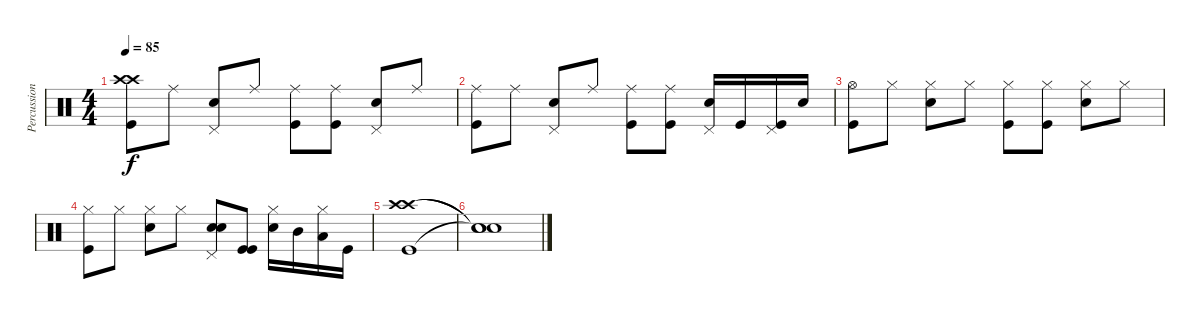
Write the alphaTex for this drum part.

\track ("Percussioni" "Percussion") {instrument percussion}
\staff {score}
\articulation defaults
\ts (4 4)
\tempo 85
\clef neutral
\ks c
("Crash high (hit)" "Crash high (hit)" "Kick (hit)").8{dy f} "Ride (middle)".8 ("Pedal Hi-Hat (hit)" "Snare (hit) 2").8 "Ride (middle)".8 ("Ride (middle)" "Kick (hit)").8 ("Ride (middle)" "Kick (hit)").8 ("Pedal Hi-Hat (hit)" "Snare (hit) 2").8 "Ride (middle)".8 |
("Ride (middle)" "Kick (hit)").8 "Ride (middle)".8 ("Pedal Hi-Hat (hit)" "Snare (hit) 2").8 "Ride (middle)".8 ("Ride (middle)" "Kick (hit)").8 ("Ride (middle)" "Kick (hit)").8 ("Pedal Hi-Hat (hit)" "Snare (hit) 2").16 "Kick (hit)".16 ("Pedal Hi-Hat (hit)" "Kick (hit)").16 "Snare (hit) 2".16 |
("Hi-Hat (open)" "Kick (hit)").8 "Hi-Hat (closed)".8 ("Hi-Hat (closed)" "Snare (hit) 2").8 "Hi-Hat (closed)".8 ("Hi-Hat (closed)" "Kick (hit)").8 ("Hi-Hat (closed)" "Kick (hit)").8 ("Hi-Hat (closed)" "Snare (hit) 2").8 "Hi-Hat (closed)".8 |
("Hi-Hat (closed)" "Kick (hit)").8 "Hi-Hat (closed)".8 ("Hi-Hat (closed)" "Snare (hit) 2").8 "Hi-Hat (closed)".8 ("Pedal Hi-Hat (hit)" "Snare (hit) 2" "Snare (hit) 2").8 ("Kick (hit)" "Kick (hit)").8 ("Hi-Hat (closed)" "Snare (hit) 2").16 "Mid Tom (hit)".16 ("Hi-Hat (closed)" "Low Tom (hit)").16 "Kick (hit)".16 |
("Crash high (hit)" "Crash high (hit)" "Kick (hit)").1 |
("Snare (hit)"{t} "Snare (hit)"{t} "Snare (hit)"{t}).1
